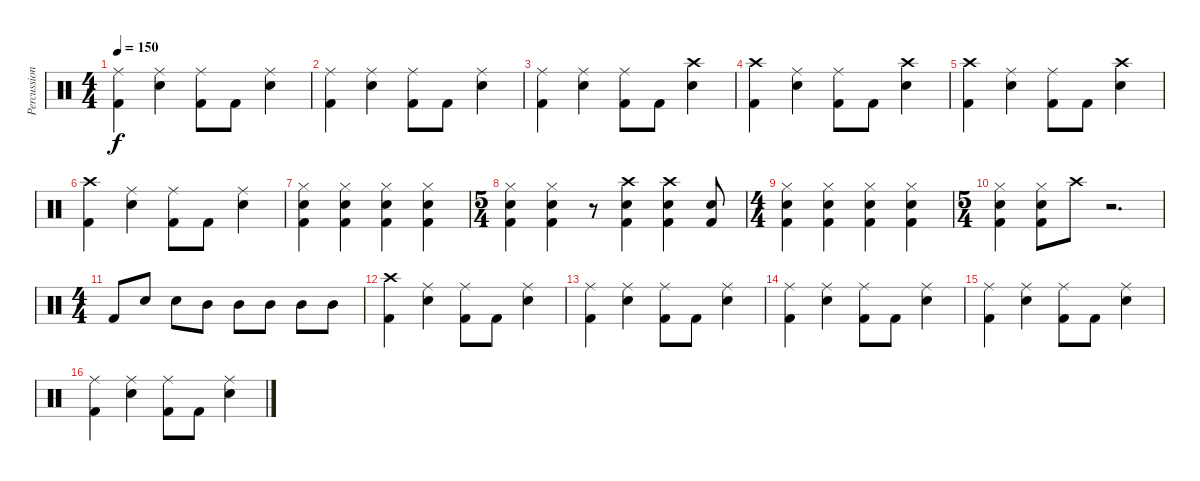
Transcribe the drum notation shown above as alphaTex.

\track ("Percussions" "Percussion") {instrument percussion}
\staff {score}
\articulation defaults
\ts (4 4)
\tempo 150
\clef neutral
\ks c
("Ride (middle)" "Kick (hit) 2").4{dy f} ("Ride (middle)" "Electric Snare (hit)").4 ("Ride (middle)" "Kick (hit) 2").8 "Kick (hit) 2".8 ("Ride (middle)" "Electric Snare (hit)").4 |
("Ride (middle)" "Kick (hit) 2").4 ("Ride (middle)" "Electric Snare (hit)").4 ("Ride (middle)" "Kick (hit) 2").8 "Kick (hit) 2".8 ("Ride (middle)" "Electric Snare (hit)").4 |
("Ride (middle)" "Kick (hit) 2").4 ("Ride (middle)" "Electric Snare (hit)").4 ("Ride (middle)" "Kick (hit) 2").8 "Kick (hit) 2".8 ("Crash high (hit)" "Electric Snare (hit)").4 |
("Crash high (hit)" "Kick (hit) 2").4 ("Ride (middle)" "Electric Snare (hit)").4 ("Ride (middle)" "Kick (hit) 2").8 "Kick (hit) 2".8 ("Crash high (hit)" "Electric Snare (hit)").4 |
("Crash high (hit)" "Kick (hit) 2").4 ("Ride (middle)" "Electric Snare (hit)").4 ("Ride (middle)" "Kick (hit) 2").8 "Kick (hit) 2".8 ("Crash high (hit)" "Electric Snare (hit)").4 |
("Crash high (hit)" "Kick (hit) 2").4 ("Ride (middle)" "Electric Snare (hit)").4 ("Ride (middle)" "Kick (hit) 2").8 "Kick (hit) 2".8 ("Ride (middle)" "Electric Snare (hit)").4 |
("Hi-Hat (closed)" "Electric Snare (hit)" "Kick (hit) 2").4 ("Hi-Hat (closed)" "Electric Snare (hit)" "Kick (hit) 2").4 ("Hi-Hat (closed)" "Electric Snare (hit)" "Kick (hit) 2").4 ("Hi-Hat (closed)" "Electric Snare (hit)" "Kick (hit) 2").4 |
\ts (5 4)
("Hi-Hat (closed)" "Electric Snare (hit)" "Kick (hit) 2").4 ("Hi-Hat (closed)" "Electric Snare (hit)" "Kick (hit) 2").4 r.8 ("Crash high (hit)" "Electric Snare (hit)" "Kick (hit) 2").4 ("Crash high (hit)" "Electric Snare (hit)" "Kick (hit) 2").4 ("Electric Snare (hit)" "Kick (hit) 2").8 |
\ts (4 4)
("Hi-Hat (closed)" "Electric Snare (hit)" "Kick (hit) 2").4 ("Hi-Hat (closed)" "Electric Snare (hit)" "Kick (hit) 2").4 ("Hi-Hat (closed)" "Electric Snare (hit)" "Kick (hit) 2").4 ("Hi-Hat (closed)" "Electric Snare (hit)" "Kick (hit) 2").4 |
\ts (5 4)
("Hi-Hat (closed)" "Electric Snare (hit)" "Kick (hit) 2").4 ("Hi-Hat (closed)" "Electric Snare (hit)" "Kick (hit) 2").8 "Crash high (hit)".8 r.2{d} |
\ts (4 4)
"Kick (hit) 2".8 "Electric Snare (hit)".8 "Electric Snare (hit)".8 "Mid Tom (hit)".8 "Mid Tom (hit)".8 "Mid Tom (hit)".8 "Mid Tom (hit)".8 "Mid Tom (hit)".8 |
("Crash high (hit)" "Kick (hit) 2").4 ("Ride (middle)" "Electric Snare (hit)").4 ("Ride (middle)" "Kick (hit) 2").8 "Kick (hit) 2".8 ("Ride (middle)" "Electric Snare (hit)").4 |
("Ride (middle)" "Kick (hit) 2").4 ("Ride (middle)" "Electric Snare (hit)").4 ("Ride (middle)" "Kick (hit) 2").8 "Kick (hit) 2".8 ("Ride (middle)" "Electric Snare (hit)").4 |
("Ride (middle)" "Kick (hit) 2").4 ("Ride (middle)" "Electric Snare (hit)").4 ("Ride (middle)" "Kick (hit) 2").8 "Kick (hit) 2".8 ("Ride (middle)" "Electric Snare (hit)").4 |
("Ride (middle)" "Kick (hit) 2").4 ("Ride (middle)" "Electric Snare (hit)").4 ("Ride (middle)" "Kick (hit) 2").8 "Kick (hit) 2".8 ("Ride (middle)" "Electric Snare (hit)").4 |
("Ride (middle)" "Kick (hit) 2").4 ("Ride (middle)" "Electric Snare (hit)").4 ("Ride (middle)" "Kick (hit) 2").8 "Kick (hit) 2".8 ("Ride (middle)" "Electric Snare (hit)").4
